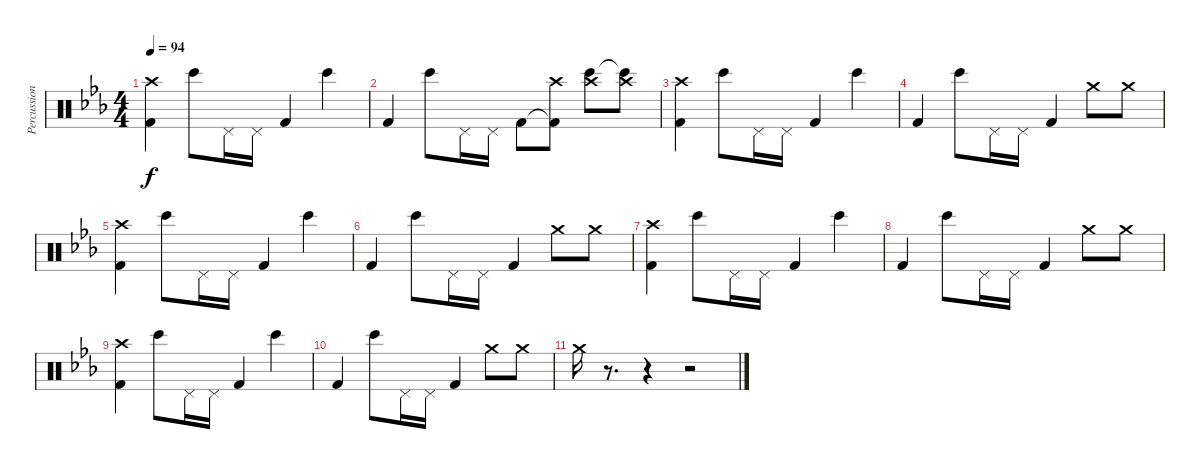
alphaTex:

\track ("Percussion" "Percussion") {instrument percussion}
\staff {score}
\articulation defaults
\ts (4 4)
\tempo 94
\clef neutral
\ks eb
("Kick (hit) 2" "Crash high (hit)").4{dy f} "Bongo High (hit)".8 "Pedal Hi-Hat (hit)".16 "Pedal Hi-Hat (hit)".16 "Kick (hit) 2".4 "Bongo High (hit)".4 |
"Kick (hit) 2".4 "Bongo High (hit)".8 "Pedal Hi-Hat (hit)".16 "Pedal Hi-Hat (hit)".16 "Kick (hit) 2".8 ("Kick (hit) 2"{t} "Crash high (hit)").8 ("Bongo High (hit)" "Crash high (hit)").8 ("Bongo High (hit)"{t} "Crash high (hit)").8 |
("Kick (hit) 2" "Crash high (hit)").4 "Bongo High (hit)".8 "Pedal Hi-Hat (hit)".16 "Pedal Hi-Hat (hit)".16 "Kick (hit) 2".4 "Bongo High (hit)".4 |
"Kick (hit) 2".4 "Bongo High (hit)".8 "Pedal Hi-Hat (hit)".16 "Pedal Hi-Hat (hit)".16 "Kick (hit) 2".4 "Crash medium (hit)".8 "Crash medium (hit)".8 |
("Kick (hit) 2" "Crash high (hit)").4 "Bongo High (hit)".8 "Pedal Hi-Hat (hit)".16 "Pedal Hi-Hat (hit)".16 "Kick (hit) 2".4 "Bongo High (hit)".4 |
"Kick (hit) 2".4 "Bongo High (hit)".8 "Pedal Hi-Hat (hit)".16 "Pedal Hi-Hat (hit)".16 "Kick (hit) 2".4 "Crash medium (hit)".8 "Crash medium (hit)".8 |
("Kick (hit) 2" "Crash high (hit)").4 "Bongo High (hit)".8 "Pedal Hi-Hat (hit)".16 "Pedal Hi-Hat (hit)".16 "Kick (hit) 2".4 "Bongo High (hit)".4 |
"Kick (hit) 2".4 "Bongo High (hit)".8 "Pedal Hi-Hat (hit)".16 "Pedal Hi-Hat (hit)".16 "Kick (hit) 2".4 "Crash medium (hit)".8 "Crash medium (hit)".8 |
("Kick (hit) 2" "Crash high (hit)").4 "Bongo High (hit)".8 "Pedal Hi-Hat (hit)".16 "Pedal Hi-Hat (hit)".16 "Kick (hit) 2".4 "Bongo High (hit)".4 |
"Kick (hit) 2".4 "Bongo High (hit)".8 "Pedal Hi-Hat (hit)".16 "Pedal Hi-Hat (hit)".16 "Kick (hit) 2".4 "Crash medium (hit)".8 "Crash medium (hit)".8 |
"Crash medium (hit)".16 r.8{d} r.4 r.2
